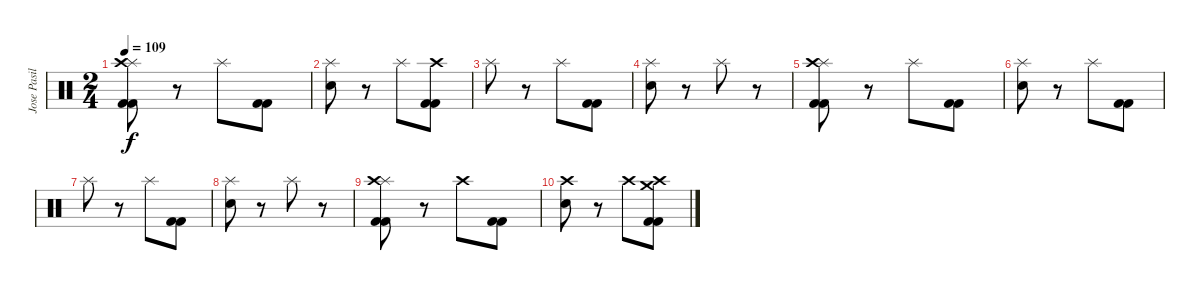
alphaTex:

\track ("Jose Pasillas" "Jose Pasil") {instrument percussion}
\staff {score}
\articulation defaults
\ts (2 4)
\tempo 109
\clef neutral
\ks c
("Splash (hit)" "Crash high (hit)" "Kick (hit) 2" "Kick (hit) 2").8{dy f} r.8 "Splash (hit)".8 ("Kick (hit) 2" "Kick (hit) 2").8 |
("Splash (hit)" "Electric Snare (hit)").8 r.8 "Splash (hit)".8 ("Crash high (hit)" "Kick (hit) 2" "Kick (hit) 2").8 |
"Splash (hit)".8 r.8 "Splash (hit)".8 ("Kick (hit) 2" "Kick (hit) 2").8 |
("Splash (hit)" "Electric Snare (hit)").8 r.8 "Splash (hit)".8 r.8 |
("Splash (hit)" "Crash high (hit)" "Kick (hit) 2" "Kick (hit) 2").8 r.8 "Splash (hit)".8 ("Kick (hit) 2" "Kick (hit) 2").8 |
("Splash (hit)" "Electric Snare (hit)").8 r.8 "Splash (hit)".8 ("Kick (hit) 2" "Kick (hit) 2").8 |
"Splash (hit)".8 r.8 "Splash (hit)".8 ("Kick (hit) 2" "Kick (hit) 2").8 |
("Splash (hit)" "Electric Snare (hit)").8 r.8 "Splash (hit)".8 r.8 |
("Splash (hit)" "Crash high (hit)" "Kick (hit) 2" "Kick (hit) 2").8 r.8 "Crash high (hit)".8 ("Kick (hit) 2" "Kick (hit) 2").8 |
("Crash high (hit)" "Electric Snare (hit)").8 r.8 "Crash high (hit)".8 ("Crash medium (hit)" "Crash high (hit)" "Kick (hit) 2" "Kick (hit) 2").8
